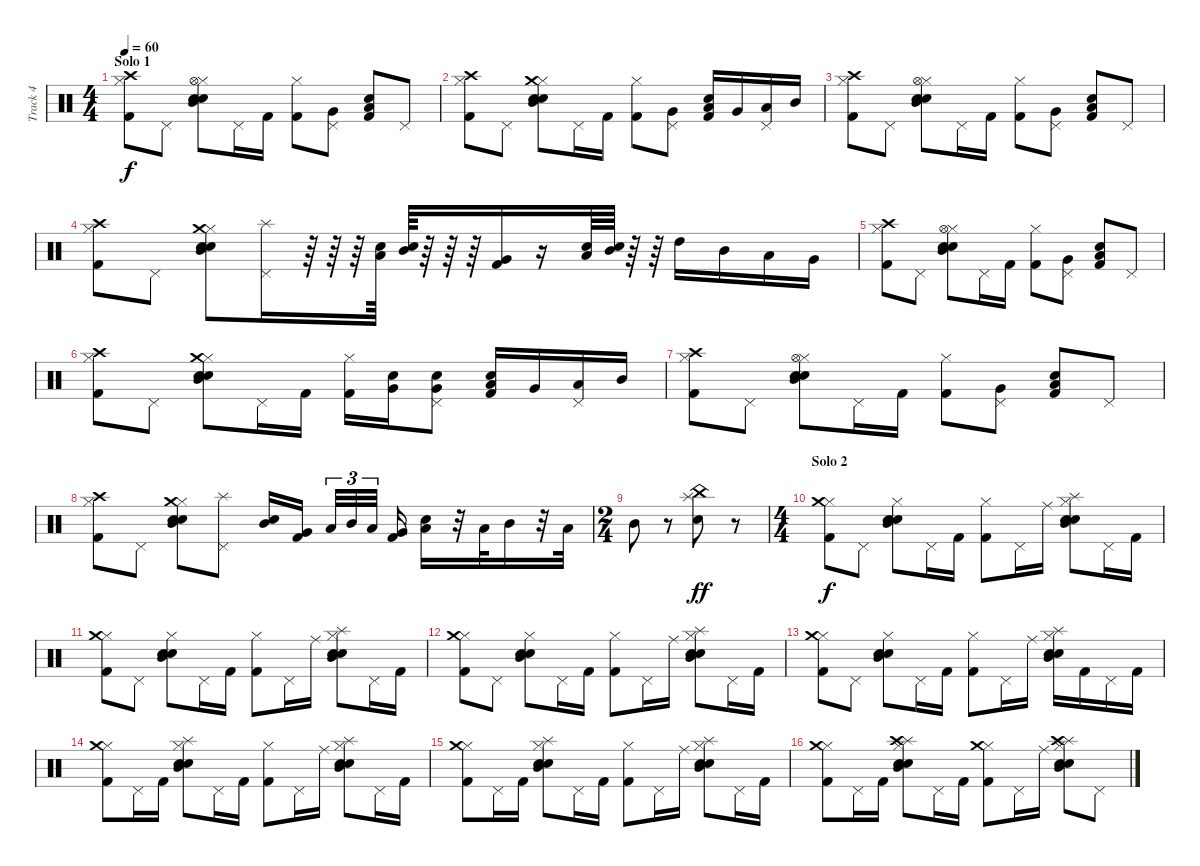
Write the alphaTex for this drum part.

\track ("Track 4" "Track 4") {instrument percussion}
\staff {score}
\articulation defaults
\ts (4 4)
\section ("" "Solo 1")
\tempo 60
\clef neutral
\ks c
("Hi-Hat (closed)" "Kick (hit) 2" "Crash high (hit)").8{dy f} "Pedal Hi-Hat (hit)".8 ("Hi-Hat (closed)" "Mid Tom (hit)" "Electric Snare (hit)" "Snare (hit) 2" "Hi-Hat (open)").8 "Pedal Hi-Hat (hit)".16 "Kick (hit) 2".16 ("Hi-Hat (closed)" "Kick (hit) 2").8 ("Pedal Hi-Hat (hit)" "Very Low Tom (hit)").8 ("Low Tom (hit)" "Kick (hit) 2" "Snare (hit) 2").8 "Pedal Hi-Hat (hit)".8 |
("Hi-Hat (closed)" "Kick (hit) 2" "Crash high (hit)").8 "Pedal Hi-Hat (hit)".8 ("Hi-Hat (closed)" "Mid Tom (hit)" "Electric Snare (hit)" "Snare (hit) 2" "Crash medium (hit)").8 "Pedal Hi-Hat (hit)".16 "Kick (hit) 2".16 ("Hi-Hat (closed)" "Kick (hit) 2").8 ("Pedal Hi-Hat (hit)" "Very Low Tom (hit)").8 ("Low Tom (hit)" "Kick (hit) 2" "Snare (hit) 2").16 "Very Low Tom (hit)".16 ("Pedal Hi-Hat (hit)" "Low Tom (hit)").16 "Mid Tom (hit)".16 |
("Hi-Hat (closed)" "Kick (hit) 2" "Crash high (hit)").8 "Pedal Hi-Hat (hit)".8 ("Hi-Hat (closed)" "Mid Tom (hit)" "Electric Snare (hit)" "Snare (hit) 2" "Hi-Hat (open)").8 "Pedal Hi-Hat (hit)".16 "Kick (hit) 2".16 ("Hi-Hat (closed)" "Kick (hit) 2").8 ("Pedal Hi-Hat (hit)" "Very Low Tom (hit)").8 ("Low Tom (hit)" "Kick (hit) 2" "Snare (hit) 2").8 "Pedal Hi-Hat (hit)".8 |
("Hi-Hat (closed)" "Kick (hit) 2" "Crash high (hit)").8 "Pedal Hi-Hat (hit)".8 ("Hi-Hat (closed)" "Mid Tom (hit)" "Electric Snare (hit)" "Snare (hit) 2" "Crash medium (hit)").8 ("Pedal Hi-Hat (hit)" "Splash (hit)").16 r.64 r.64 r.64 ("Low Tom (hit)" "Electric Snare (hit)").64 ("Mid Tom (hit)" "Electric Snare (hit)").64 r.64 r.64 r.64 ("Very Low Tom (hit)" "Kick (hit) 2").16 r.16 ("Low Tom (hit)" "Electric Snare (hit)").64 ("Mid Tom (hit)" "Electric Snare (hit)").64 r.64 r.64 "High Tom (hit)".16 "Mid Tom (hit)".16 "Low Tom (hit)".16 "Very Low Tom (hit)".16 |
("Hi-Hat (closed)" "Kick (hit) 2" "Crash high (hit)").8 "Pedal Hi-Hat (hit)".8 ("Hi-Hat (closed)" "Mid Tom (hit)" "Electric Snare (hit)" "Snare (hit) 2" "Hi-Hat (open)").8 "Pedal Hi-Hat (hit)".16 "Kick (hit) 2".16 ("Hi-Hat (closed)" "Kick (hit) 2").8 ("Pedal Hi-Hat (hit)" "Very Low Tom (hit)").8 ("Low Tom (hit)" "Kick (hit) 2" "Snare (hit) 2").8 "Pedal Hi-Hat (hit)".8 |
("Hi-Hat (closed)" "Kick (hit) 2" "Crash high (hit)").8 "Pedal Hi-Hat (hit)".8 ("Hi-Hat (closed)" "Mid Tom (hit)" "Electric Snare (hit)" "Snare (hit) 2" "Crash medium (hit)").8 "Pedal Hi-Hat (hit)".16 "Kick (hit) 2".16 ("Hi-Hat (closed)" "Kick (hit) 2").16 ("Very Low Tom (hit)" "Electric Snare (hit)").16 ("Pedal Hi-Hat (hit)" "Very Low Tom (hit)" "Electric Snare (hit)").8 ("Low Tom (hit)" "Kick (hit) 2" "Snare (hit) 2").16 "Very Low Tom (hit)".16 ("Pedal Hi-Hat (hit)" "Low Tom (hit)").16 "Mid Tom (hit)".16 |
("Hi-Hat (closed)" "Kick (hit) 2" "Crash high (hit)").8 "Pedal Hi-Hat (hit)".8 ("Hi-Hat (closed)" "Mid Tom (hit)" "Electric Snare (hit)" "Snare (hit) 2" "Hi-Hat (open)").8 "Pedal Hi-Hat (hit)".16 "Kick (hit) 2".16 ("Hi-Hat (closed)" "Kick (hit) 2").8 ("Pedal Hi-Hat (hit)" "Very Low Tom (hit)").8 ("Low Tom (hit)" "Kick (hit) 2" "Snare (hit) 2").8 "Pedal Hi-Hat (hit)".8 |
("Hi-Hat (closed)" "Kick (hit) 2" "Crash high (hit)").8 "Pedal Hi-Hat (hit)".8 ("Hi-Hat (closed)" "Mid Tom (hit)" "Electric Snare (hit)" "Snare (hit) 2" "Crash medium (hit)").8 ("Pedal Hi-Hat (hit)" "Splash (hit)").8 ("Mid Tom (hit)" "Electric Snare (hit)").16 ("Very Low Tom (hit)" "Kick (hit) 2").16 "Low Tom (hit)".32{tu (3 2)} "Mid Tom (hit)".32{tu (3 2)} "Low Tom (hit)".32{tu (3 2)} ("Very Low Tom (hit)" "Kick (hit) 2").16 ("Low Tom (hit)" "Electric Snare (hit)").16 r.32 "Low Tom (hit)".32 "Mid Tom (hit)".16 r.32 "Low Tom (hit)".32 |
\ts (2 4)
"Mid Tom (hit)".8 r.8 ("Snare (hit) 2" "China (hit)" "Splash (hit)").8{dy ff} r.8 |
\ts (4 4)
\section ("" "Solo 2")
("Hi-Hat (closed)" "Kick (hit) 2" "Crash medium (hit)").8{dy f} "Pedal Hi-Hat (hit)".8 ("Hi-Hat (closed)" "Mid Tom (hit)" "Electric Snare (hit)" "Snare (hit) 2").8 "Pedal Hi-Hat (hit)".16 "Kick (hit) 2".16 ("Hi-Hat (closed)" "Kick (hit) 2").8 "Pedal Hi-Hat (hit)".16 "Ride (middle)".16 ("Hi-Hat (closed)" "Mid Tom (hit)" "Electric Snare (hit)" "Splash (hit)" "Snare (hit) 2").8 "Pedal Hi-Hat (hit)".16 "Kick (hit) 2".16 |
("Hi-Hat (closed)" "Kick (hit) 2" "Crash medium (hit)").8 "Pedal Hi-Hat (hit)".8 ("Hi-Hat (closed)" "Mid Tom (hit)" "Electric Snare (hit)" "Snare (hit) 2").8 "Pedal Hi-Hat (hit)".16 "Kick (hit) 2".16 ("Hi-Hat (closed)" "Kick (hit) 2").8 "Pedal Hi-Hat (hit)".16 "Ride (middle)".16 ("Hi-Hat (closed)" "Mid Tom (hit)" "Electric Snare (hit)" "Splash (hit)" "Snare (hit) 2").8 "Pedal Hi-Hat (hit)".16 "Kick (hit) 2".16 |
("Hi-Hat (closed)" "Kick (hit) 2" "Crash medium (hit)").8 "Pedal Hi-Hat (hit)".8 ("Hi-Hat (closed)" "Mid Tom (hit)" "Electric Snare (hit)" "Snare (hit) 2").8 "Pedal Hi-Hat (hit)".16 "Kick (hit) 2".16 ("Hi-Hat (closed)" "Kick (hit) 2").8 "Pedal Hi-Hat (hit)".16 "Ride (middle)".16 ("Hi-Hat (closed)" "Mid Tom (hit)" "Electric Snare (hit)" "Splash (hit)" "Snare (hit) 2").8 "Pedal Hi-Hat (hit)".16 "Kick (hit) 2".16 |
("Hi-Hat (closed)" "Kick (hit) 2" "Crash medium (hit)").8 "Pedal Hi-Hat (hit)".8 ("Hi-Hat (closed)" "Mid Tom (hit)" "Electric Snare (hit)" "Snare (hit) 2").8 "Pedal Hi-Hat (hit)".16 "Kick (hit) 2".16 ("Hi-Hat (closed)" "Kick (hit) 2").8 "Pedal Hi-Hat (hit)".16 "Ride (middle)".16 ("Hi-Hat (closed)" "Mid Tom (hit)" "Electric Snare (hit)" "Splash (hit)" "Snare (hit) 2").16 "Kick (hit) 2".16 "Pedal Hi-Hat (hit)".16 "Kick (hit) 2".16 |
("Hi-Hat (closed)" "Kick (hit) 2" "Crash medium (hit)").8 "Pedal Hi-Hat (hit)".16 "Kick (hit) 2".16 ("Hi-Hat (closed)" "Mid Tom (hit)" "Electric Snare (hit)" "Snare (hit) 2" "Splash (hit)").8 "Pedal Hi-Hat (hit)".16 "Kick (hit) 2".16 ("Hi-Hat (closed)" "Kick (hit) 2").8 "Pedal Hi-Hat (hit)".16 "Ride (middle)".16 ("Hi-Hat (closed)" "Mid Tom (hit)" "Electric Snare (hit)" "Splash (hit)" "Snare (hit) 2").8 "Pedal Hi-Hat (hit)".16 "Kick (hit) 2".16 |
("Hi-Hat (closed)" "Kick (hit) 2" "Crash medium (hit)").8 "Pedal Hi-Hat (hit)".16 "Kick (hit) 2".16 ("Hi-Hat (closed)" "Mid Tom (hit)" "Electric Snare (hit)" "Snare (hit) 2" "Splash (hit)").8 "Pedal Hi-Hat (hit)".16 "Kick (hit) 2".16 ("Hi-Hat (closed)" "Kick (hit) 2").8 "Pedal Hi-Hat (hit)".16 "Ride (middle)".16 ("Hi-Hat (closed)" "Mid Tom (hit)" "Electric Snare (hit)" "Splash (hit)" "Snare (hit) 2").8 "Pedal Hi-Hat (hit)".16 "Kick (hit) 2".16 |
("Hi-Hat (closed)" "Kick (hit) 2" "Crash medium (hit)").8 "Pedal Hi-Hat (hit)".16 "Kick (hit) 2".16 ("Hi-Hat (closed)" "Mid Tom (hit)" "Electric Snare (hit)" "Snare (hit) 2" "Splash (hit)" "Crash high (hit)").8 "Pedal Hi-Hat (hit)".16 "Kick (hit) 2".16 ("Hi-Hat (closed)" "Kick (hit) 2" "Crash medium (hit)").8 "Pedal Hi-Hat (hit)".16 "Ride (middle)".16 ("Hi-Hat (closed)" "Mid Tom (hit)" "Electric Snare (hit)" "Splash (hit)" "Snare (hit) 2" "Crash high (hit)").8 "Pedal Hi-Hat (hit)".8
